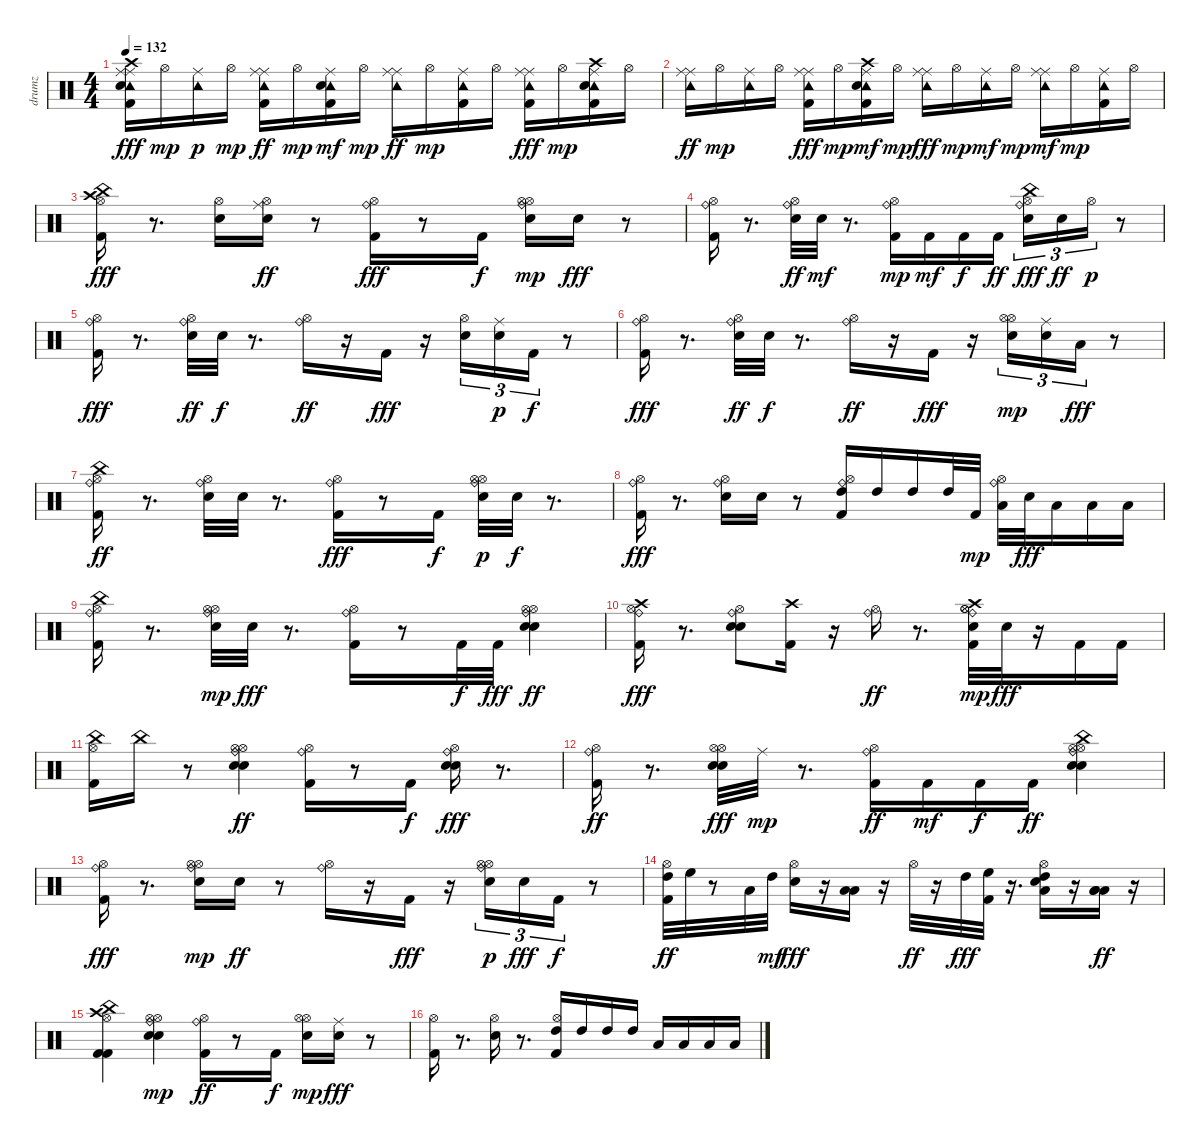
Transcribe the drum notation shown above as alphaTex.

\track ("drumz" "drumz") {instrument percussion}
\staff {score}
\articulation defaults
\ts (4 4)
\tempo 132
\clef neutral
\ks c
("Tambourine (hit)" "Ride (middle)" "Crash high (hit)" "Snare (hit) 2" "Kick (hit) 2" "Ride (middle)").16{dy fff} "Hi-Hat (open)".16{dy mp} ("Tambourine (hit)" "Ride (middle)").16{dy p} "Hi-Hat (open)".16{dy mp} ("Tambourine (hit)" "Ride (middle)" "Kick (hit) 2" "Ride (middle)").16{dy ff} "Hi-Hat (open)".16{dy mp} ("Tambourine (hit)" "Snare (hit) 2" "Kick (hit) 2" "Ride (middle)").16{dy mf} "Hi-Hat (open)".16{dy mp} ("Tambourine (hit)" "Ride (middle)" "Ride (middle)").16{dy ff} "Hi-Hat (open)".16{dy mp} ("Tambourine (hit)" "Kick (hit) 2" "Ride (middle)").16 "Hi-Hat (open)".16 ("Tambourine (hit)" "Ride (middle)" "Kick (hit) 2" "Ride (middle)").16{dy fff} "Hi-Hat (open)".16{dy mp} ("Tambourine (hit)" "Crash high (hit)" "Snare (hit) 2" "Kick (hit) 2" "Ride (middle)").16 "Hi-Hat (open)".16 |
("Tambourine (hit)" "Ride (middle)" "Ride (middle)").16{dy ff} "Hi-Hat (open)".16{dy mp} ("Tambourine (hit)" "Ride (middle)").16 "Hi-Hat (open)".16 ("Tambourine (hit)" "Ride (middle)" "Kick (hit) 2" "Ride (middle)").16{dy fff} "Hi-Hat (open)".16{dy mp} ("Tambourine (hit)" "Crash high (hit)" "Snare (hit) 2" "Kick (hit) 2" "Ride (middle)").16{dy mf} "Hi-Hat (open)".16{dy mp} ("Tambourine (hit)" "Ride (middle)" "Ride (middle)").16{dy fff} "Hi-Hat (open)".16{dy mp} ("Tambourine (hit)" "Ride (middle)").16{dy mf} "Hi-Hat (open)".16{dy mp} ("Tambourine (hit)" "Ride (middle)" "Ride (middle)").16{dy mf} "Hi-Hat (open)".16{dy mp} ("Tambourine (hit)" "Kick (hit) 2" "Ride (middle)").16 "Hi-Hat (open)".16 |
("China (hit)" "Hi-Hat (open)" "Kick (hit) 2" "Crash high (hit)").16{dy fff} r.8{d} ("Hi-Hat (open)" "Snare (hit) 2").16 ("Snare (hit) 2" "Hi-Hat (open)" "Ride (middle)").16{dy ff} r.8 ("Hi-Hat (open)" "Kick (hit) 2" "Ride (bell)").16{dy fff} r.8 "Kick (hit) 2".16{dy f} ("Hi-Hat (open)" "Snare (hit) 2" "Ride (bell)" "Hi-Hat (open)").16{dy mp} "Snare (hit) 2".16{dy fff} r.8 |
("Hi-Hat (open)" "Kick (hit) 2" "Ride (bell)").16 r.8{d} ("Hi-Hat (open)" "Snare (hit) 2" "Ride (bell)").32{dy ff} "Snare (hit) 2".32{dy mf} r.8{d} ("Hi-Hat (open)" "Kick (hit) 2" "Ride (bell)").16{dy mp} "Kick (hit) 2".16{dy mf} "Kick (hit) 2".16{dy f} "Kick (hit) 2".16{dy ff} ("Hi-Hat (open)" "China (hit)" "Snare (hit) 2" "Ride (bell)").16{tu (3 2) dy fff} "Snare (hit) 2".16{tu (3 2) dy ff} "Hi-Hat (open)".16{tu (3 2) dy p} r.8 |
("Hi-Hat (open)" "Kick (hit) 2" "Ride (bell)").16{dy fff} r.8{d} ("Hi-Hat (open)" "Snare (hit) 2" "Ride (bell)").32{dy ff} "Snare (hit) 2".32{dy f} r.8{d} ("Hi-Hat (open)" "Ride (bell)").16{dy ff} r.16 "Kick (hit) 2".16{dy fff} r.16 ("Hi-Hat (open)" "Snare (hit) 2").16{tu (3 2)} ("Snare (hit) 2" "Ride (middle)").16{tu (3 2) dy p} "Kick (hit) 2".16{tu (3 2) dy f} r.8 |
("Hi-Hat (open)" "Kick (hit) 2" "Ride (bell)").16{dy fff} r.8{d} ("Hi-Hat (open)" "Snare (hit) 2" "Ride (bell)").32{dy ff} "Snare (hit) 2".32{dy f} r.8{d} ("Hi-Hat (open)" "Ride (bell)").16{dy ff} r.16 "Kick (hit) 2".16{dy fff} r.16 ("Hi-Hat (open)" "Snare (hit) 2" "Hi-Hat (open)").16{tu (3 2) dy mp} ("Electric Snare (hit)" "Ride (middle)").16{tu (3 2)} "Low Tom (hit)".16{tu (3 2) dy fff} r.8 |
("China (hit)" "Hi-Hat (open)" "Kick (hit) 2" "Ride (bell)").16{dy ff} r.8{d} ("Hi-Hat (open)" "Snare (hit) 2" "Ride (bell)").32 "Snare (hit) 2".32 r.8{d} ("Hi-Hat (open)" "Kick (hit) 2" "Ride (bell)").16{dy fff} r.8 "Kick (hit) 2".16{dy f} ("Hi-Hat (open)" "Snare (hit) 2" "Ride (bell)" "Hi-Hat (open)").32{dy p} "Snare (hit) 2".32{dy f} r.8{d} |
("Hi-Hat (open)" "Kick (hit) 2" "Ride (bell)").16{dy fff} r.8{d} ("Hi-Hat (open)" "Snare (hit) 2" "Ride (bell)").16 "Snare (hit) 2".16 r.8 ("High Tom (hit)" "Hi-Hat (open)" "Kick (hit) 2" "Ride (bell)").16 "High Tom (hit)".16 "High Tom (hit)".16 "High Tom (hit)".32 "Kick (hit) 2".32{dy mp} ("Low Tom (hit)" "Ride (bell)" "Hi-Hat (open)").32 "Snare (hit) 2".32{dy fff} "Low Tom (hit)".16 "Low Floor Tom (hit)".16 "Low Floor Tom (hit)".16 |
("China (hit)" "Hi-Hat (open)" "Kick (hit) 2" "Ride (bell)").16 r.8{d} ("Hi-Hat (open)" "Snare (hit) 2" "Ride (bell)" "Hi-Hat (open)").32{dy mp} "Electric Snare (hit)".32{dy fff} r.8{d} ("Hi-Hat (open)" "Kick (hit) 2" "Ride (bell)").16 r.8 "Kick (hit) 2".32{dy f} "Kick (hit) 2".32{dy fff} ("Hi-Hat (open)" "Snare (hit) 2" "Ride (bell)" "Hi-Hat (open)" "Snare (hit) 2").4{dy ff} |
("Crash high (hit)" "Hi-Hat (open)" "Kick (hit) 2" "Ride (bell)").16{dy fff} r.8{d} ("Hi-Hat (open)" "Snare (hit) 2" "Ride (bell)" "Snare (hit) 2").8 ("Crash high (hit)" "Kick (hit) 2").16 r.16 ("Hi-Hat (open)" "Ride (bell)").16{dy ff} r.8{d} ("Crash high (hit)" "Hi-Hat (open)" "Snare (hit) 2" "Kick (hit) 2" "Ride (bell)" "Hi-Hat (open)").32{dy mp} "Electric Snare (hit)".32{dy fff} r.16 "Kick (hit) 2".16 "Kick (hit) 2".16 |
("China (hit)" "Hi-Hat (open)" "Kick (hit) 2").16 "China (hit)".16 r.8 ("Hi-Hat (open)" "Snare (hit) 2" "Ride (bell)" "Hi-Hat (open)" "Electric Snare (hit)").4{dy ff} ("Hi-Hat (open)" "Kick (hit) 2" "Ride (bell)").16 r.8 "Kick (hit) 2".16{dy f} ("Hi-Hat (open)" "Snare (hit) 2" "Ride (bell)" "Electric Snare (hit)").16{dy fff} r.8{d} |
("Hi-Hat (open)" "Kick (hit) 2" "Ride (bell)").16{dy ff} r.8{d} ("Hi-Hat (open)" "Snare (hit) 2" "Hi-Hat (open)" "Electric Snare (hit)").32{dy fff} "Ride (middle)".32{dy mp} r.8{d} ("Hi-Hat (open)" "Kick (hit) 2" "Ride (bell)").16{dy ff} "Kick (hit) 2".16{dy mf} "Kick (hit) 2".16{dy f} "Kick (hit) 2".16{dy ff} ("Hi-Hat (open)" "China (hit)" "Snare (hit) 2" "Ride (bell)" "Hi-Hat (open)" "Electric Snare (hit)").4 |
("Hi-Hat (open)" "Kick (hit) 2" "Ride (bell)").16{dy fff} r.8{d} ("Hi-Hat (open)" "Snare (hit) 2" "Ride (bell)" "Hi-Hat (open)").16{dy mp} "Electric Snare (hit)".16{dy ff} r.8 ("Hi-Hat (open)" "Ride (bell)").16 r.16 "Kick (hit) 2".16{dy fff} r.16 ("Hi-Hat (open)" "Snare (hit) 2" "Ride (bell)" "Hi-Hat (open)").16{tu (3 2) dy p} "Electric Snare (hit)".16{tu (3 2) dy fff} "Kick (hit) 2".16{tu (3 2) dy f} r.8 |
("Hi-Hat (open)" "Kick (hit) 2" "High Tom (hit)").32{dy ff} "High Floor Tom (hit)".32 r.8 "Low Tom (hit)".32 "High Tom (hit)".32{dy mf} ("Hi-Hat (open)" "Snare (hit) 2").16{dy fff} r.16 ("Low Floor Tom (hit)" "Low Tom (hit)").16 r.16 "Hi-Hat (open)".32{dy ff} r.16 "High Tom (hit)".32{dy fff} ("High Floor Tom (hit)" "Kick (hit) 2").32 r.16{d} ("High Tom (hit)" "Low Tom (hit)" "Hi-Hat (open)" "Snare (hit) 2").16 r.16 ("Low Tom (hit)" "Low Tom (hit)" "Low Floor Tom (hit)").16{dy ff} r.16 |
("Kick (hit) 2" "China (hit)" "Hi-Hat (open)" "Kick (hit) 2" "Crash high (hit)").4 ("Hi-Hat (open)" "Snare (hit) 2" "Ride (bell)" "Hi-Hat (open)" "Snare (hit) 2").4{dy mp} ("Hi-Hat (open)" "Kick (hit) 2" "Ride (bell)").16{dy ff} r.8 "Kick (hit) 2".16{dy f} ("Hi-Hat (open)" "Snare (hit) 2" "Hi-Hat (open)").16{dy mp} ("Electric Snare (hit)" "Ride (middle)").16{dy fff} r.8 |
("Hi-Hat (open)" "Kick (hit) 2").16 r.8{d} ("Hi-Hat (open)" "Snare (hit) 2").16 r.8{d} ("High Tom (hit)" "Hi-Hat (open)" "Kick (hit) 2").16 "High Tom (hit)".16 "High Tom (hit)".16 "High Tom (hit)".16 "Low Tom (hit)".16 "Low Tom (hit)".16 "Low Floor Tom (hit)".16 "Low Floor Tom (hit)".16
